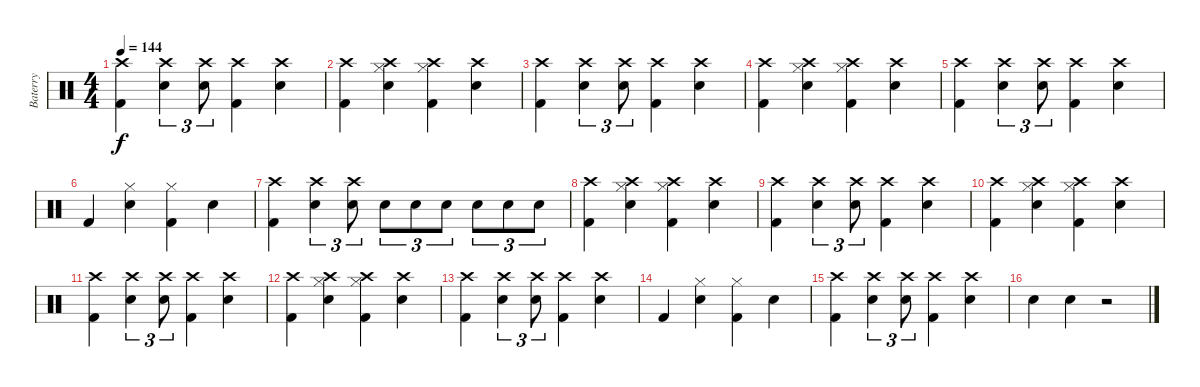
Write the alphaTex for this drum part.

\track ("Baterry" "Baterry") {instrument percussion}
\staff {score}
\articulation defaults
\ts (4 4)
\tempo 144
\clef neutral
\ks c
("Kick (hit) 2" "Crash high (hit)").4{dy f} ("Electric Snare (hit)" "Crash high (hit)").4{tu (3 2)} ("Electric Snare (hit)" "Crash high (hit)").8{tu (3 2)} ("Kick (hit) 2" "Crash high (hit)").4 ("Electric Snare (hit)" "Crash high (hit)").4 |
("Crash high (hit)" "Kick (hit) 2").4 ("Hi-Hat (closed)" "Crash high (hit)" "Electric Snare (hit)").4 ("Hi-Hat (closed)" "Crash high (hit)" "Kick (hit) 2").4 ("Crash high (hit)" "Electric Snare (hit)").4 |
("Kick (hit) 2" "Crash high (hit)").4 ("Electric Snare (hit)" "Crash high (hit)").4{tu (3 2)} ("Electric Snare (hit)" "Crash high (hit)").8{tu (3 2)} ("Kick (hit) 2" "Crash high (hit)").4 ("Electric Snare (hit)" "Crash high (hit)").4 |
("Crash high (hit)" "Kick (hit) 2").4 ("Hi-Hat (closed)" "Crash high (hit)" "Electric Snare (hit)").4 ("Hi-Hat (closed)" "Crash high (hit)" "Kick (hit) 2").4 ("Crash high (hit)" "Electric Snare (hit)").4 |
("Kick (hit) 2" "Crash high (hit)").4 ("Electric Snare (hit)" "Crash high (hit)").4{tu (3 2)} ("Electric Snare (hit)" "Crash high (hit)").8{tu (3 2)} ("Kick (hit) 2" "Crash high (hit)").4 ("Electric Snare (hit)" "Crash high (hit)").4 |
"Kick (hit) 2".4 ("Hi-Hat (closed)" "Electric Snare (hit)").4 ("Hi-Hat (closed)" "Kick (hit) 2").4 "Electric Snare (hit)".4 |
("Kick (hit) 2" "Crash high (hit)").4 ("Electric Snare (hit)" "Crash high (hit)").4{tu (3 2)} ("Electric Snare (hit)" "Crash high (hit)").8{tu (3 2)} "Electric Snare (hit)".8{tu (3 2)} "Electric Snare (hit)".8{tu (3 2)} "Electric Snare (hit)".8{tu (3 2)} "Electric Snare (hit)".8{tu (3 2)} "Electric Snare (hit)".8{tu (3 2)} "Electric Snare (hit)".8{tu (3 2)} |
("Crash high (hit)" "Kick (hit) 2").4 ("Hi-Hat (closed)" "Crash high (hit)" "Electric Snare (hit)").4 ("Hi-Hat (closed)" "Crash high (hit)" "Kick (hit) 2").4 ("Crash high (hit)" "Electric Snare (hit)").4 |
("Kick (hit) 2" "Crash high (hit)").4 ("Electric Snare (hit)" "Crash high (hit)").4{tu (3 2)} ("Electric Snare (hit)" "Crash high (hit)").8{tu (3 2)} ("Kick (hit) 2" "Crash high (hit)").4 ("Electric Snare (hit)" "Crash high (hit)").4 |
("Crash high (hit)" "Kick (hit) 2").4 ("Hi-Hat (closed)" "Crash high (hit)" "Electric Snare (hit)").4 ("Hi-Hat (closed)" "Crash high (hit)" "Kick (hit) 2").4 ("Crash high (hit)" "Electric Snare (hit)").4 |
("Kick (hit) 2" "Crash high (hit)").4 ("Electric Snare (hit)" "Crash high (hit)").4{tu (3 2)} ("Electric Snare (hit)" "Crash high (hit)").8{tu (3 2)} ("Kick (hit) 2" "Crash high (hit)").4 ("Electric Snare (hit)" "Crash high (hit)").4 |
("Crash high (hit)" "Kick (hit) 2").4 ("Hi-Hat (closed)" "Crash high (hit)" "Electric Snare (hit)").4 ("Hi-Hat (closed)" "Crash high (hit)" "Kick (hit) 2").4 ("Crash high (hit)" "Electric Snare (hit)").4 |
("Kick (hit) 2" "Crash high (hit)").4 ("Electric Snare (hit)" "Crash high (hit)").4{tu (3 2)} ("Electric Snare (hit)" "Crash high (hit)").8{tu (3 2)} ("Kick (hit) 2" "Crash high (hit)").4 ("Electric Snare (hit)" "Crash high (hit)").4 |
"Kick (hit) 2".4 ("Hi-Hat (closed)" "Electric Snare (hit)").4 ("Hi-Hat (closed)" "Kick (hit) 2").4 "Electric Snare (hit)".4 |
("Kick (hit) 2" "Crash high (hit)").4 ("Electric Snare (hit)" "Crash high (hit)").4{tu (3 2)} ("Electric Snare (hit)" "Crash high (hit)").8{tu (3 2)} ("Kick (hit) 2" "Crash high (hit)").4 ("Electric Snare (hit)" "Crash high (hit)").4 |
"Electric Snare (hit)".4 "Electric Snare (hit)".4 r.2
